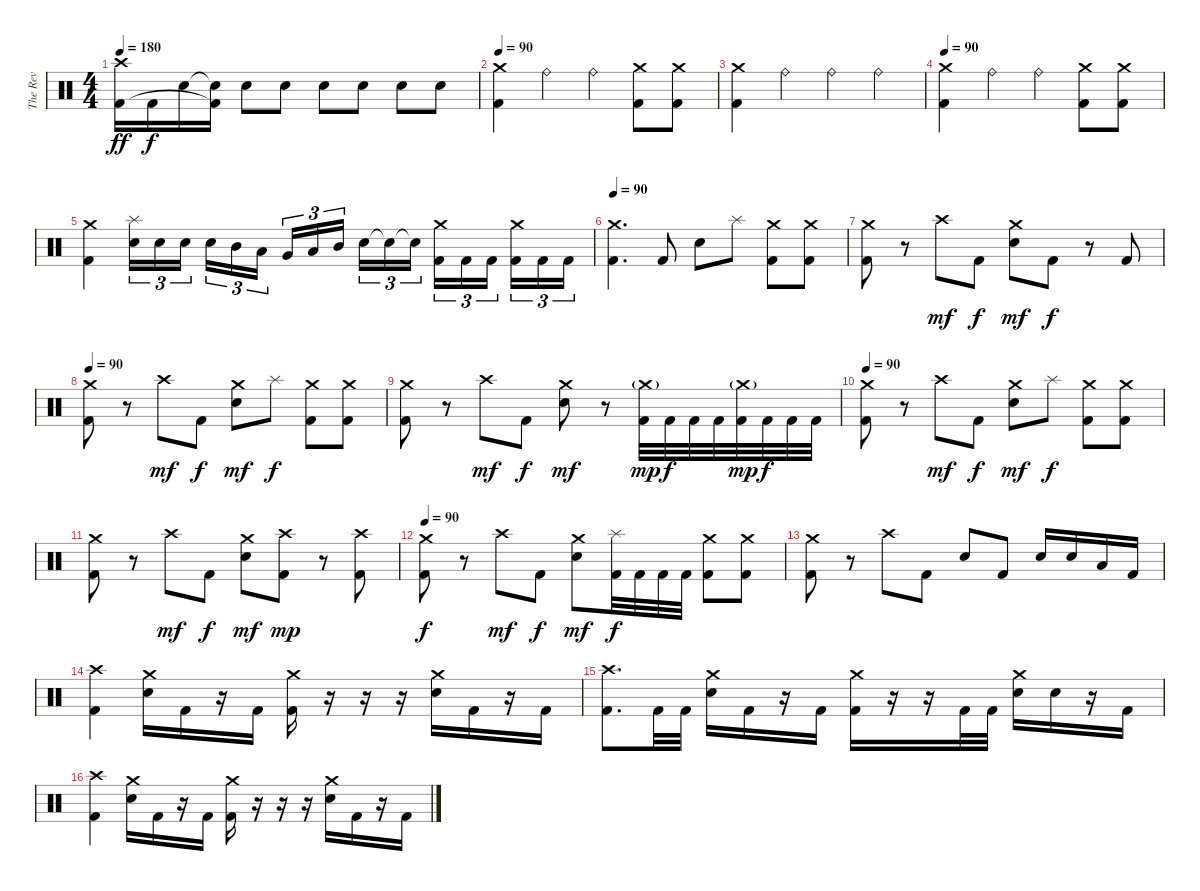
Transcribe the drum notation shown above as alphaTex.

\track ("The Rev" "The Rev") {instrument percussion}
\staff {score}
\articulation defaults
\ts (4 4)
\tempo 180
\clef neutral
\ks c
("Crash high (hit)" "Kick (hit) 2").16{dy ff} "Kick (hit) 2".16{dy f} "Snare (hit) 2".16 ("Snare (hit)"{t} "Kick (hit) 2"{t}).16 "Snare (hit) 2".8 "Snare (hit) 2".8 "Snare (hit) 2".8 "Snare (hit) 2".8 "Snare (hit) 2".8 "Snare (hit) 2".8 |
\tempo 90
("Crash medium (hit)" "Kick (hit) 2").4 "Ride (bell)".4 "Ride (bell)".4 ("Crash medium (hit)" "Kick (hit) 2").8 ("Crash medium (hit)" "Kick (hit) 2").8 |
("Crash medium (hit)" "Kick (hit) 2").4 "Ride (bell)".4 "Ride (bell)".4 "Ride (bell)".4 |
\tempo 90
("Crash medium (hit)" "Kick (hit) 2").4 "Ride (bell)".4 "Ride (bell)".4 ("Crash medium (hit)" "Kick (hit) 2").8 ("Crash medium (hit)" "Kick (hit) 2").8 |
("Crash medium (hit)" "Kick (hit) 2").4 ("Splash (hit)" "Snare (hit) 2").16{tu (3 2)} "Snare (hit) 2".16{tu (3 2)} "Snare (hit) 2".16{tu (3 2) beam splitsecondary} "Snare (hit) 2".16{tu (3 2)} "Mid Tom (hit)".16{tu (3 2)} "Low Tom (hit)".16{tu (3 2)} "Very Low Tom (hit)".16{tu (3 2)} "Low Tom (hit)".16{tu (3 2)} "Mid Tom (hit)".16{tu (3 2) beam splitsecondary} "Snare (hit) 2".16{tu (3 2)} "Snare (hit) 2"{t}.16{tu (3 2)} "Snare (hit)"{t}.16{tu (3 2)} ("Crash medium (hit)" "Kick (hit) 2").16{tu (3 2)} "Kick (hit) 2".16{tu (3 2)} "Kick (hit) 2".16{tu (3 2) beam splitsecondary} ("Crash medium (hit)" "Kick (hit) 2").16{tu (3 2)} "Kick (hit) 2".16{tu (3 2)} "Kick (hit) 2".16{tu (3 2)} |
\tempo 90
("Crash medium (hit)" "Kick (hit) 2").4{d} "Kick (hit) 2".8 "Snare (hit) 2".8 "Splash (hit)".8 ("Crash medium (hit)" "Kick (hit) 2").8 ("Crash medium (hit)" "Kick (hit) 2").8 |
("Crash medium (hit)" "Kick (hit) 2").8 r.8 "Crash high (hit)".8{dy mf} "Kick (hit) 2".8{dy f} ("Crash medium (hit)" "Snare (hit) 2").8{dy mf} "Kick (hit) 2".8{dy f} r.8 "Kick (hit) 2".8 |
\tempo 90
("Crash medium (hit)" "Kick (hit) 2").8 r.8 "Crash high (hit)".8{dy mf} "Kick (hit) 2".8{dy f} ("Crash medium (hit)" "Snare (hit) 2").8{dy mf} "Splash (hit)".8{dy f} ("Crash medium (hit)" "Kick (hit) 2").8 ("Crash medium (hit)" "Kick (hit) 2").8 |
("Crash medium (hit)" "Kick (hit) 2").8 r.8 "Crash high (hit)".8{dy mf} "Kick (hit) 2".8{dy f} ("Crash medium (hit)" "Snare (hit) 2").8{dy mf} r.8 ("Crash medium (hit)"{g} "Kick (hit) 2").32{dy mp} "Kick (hit) 2".32{dy f} "Kick (hit) 2".32 "Kick (hit) 2".32 ("Crash medium (hit)"{g} "Kick (hit) 2").32{dy mp} "Kick (hit) 2".32{dy f} "Kick (hit) 2".32 "Kick (hit) 2".32 |
\tempo 90
("Crash medium (hit)" "Kick (hit) 2").8 r.8 "Crash high (hit)".8{dy mf} "Kick (hit) 2".8{dy f} ("Crash medium (hit)" "Snare (hit) 2").8{dy mf} "Splash (hit)".8{dy f} ("Crash medium (hit)" "Kick (hit) 2").8 ("Crash medium (hit)" "Kick (hit) 2").8 |
("Crash medium (hit)" "Kick (hit) 2").8 r.8 "Crash high (hit)".8{dy mf} "Kick (hit) 2".8{dy f} ("Crash medium (hit)" "Snare (hit) 2").8{dy mf} ("Crash high (hit)" "Kick (hit) 2").8{dy mp} r.8 ("Crash high (hit)" "Kick (hit) 2").8 |
\tempo 90
("Crash medium (hit)" "Kick (hit) 2").8{dy f} r.8 "Crash high (hit)".8{dy mf} "Kick (hit) 2".8{dy f} ("Crash medium (hit)" "Snare (hit) 2").8{dy mf} ("Splash (hit)" "Kick (hit) 2").32{dy f} "Kick (hit) 2".32 "Kick (hit) 2".32 "Kick (hit) 2".32 ("Crash medium (hit)" "Kick (hit) 2").8 ("Crash medium (hit)" "Kick (hit) 2").8 |
("Crash medium (hit)" "Kick (hit) 2").8 r.8 "Crash high (hit)".8 "Kick (hit) 2".8 "Snare (hit) 2".8 "Kick (hit) 2".8 "Snare (hit) 2".16 "Snare (hit) 2".16 "Low Floor Tom (hit)".16 "Kick (hit) 2".16 |
("Crash high (hit)" "Kick (hit) 2").4 ("Crash medium (hit)" "Snare (hit) 2").16 "Kick (hit) 2".16 r.16 "Kick (hit) 2".16 ("Crash medium (hit)" "Kick (hit) 2").16 r.16 r.16 r.16 ("Crash medium (hit)" "Snare (hit) 2").16 "Kick (hit) 2".16 r.16 "Kick (hit) 2".16 |
("Crash high (hit)" "Kick (hit) 2").8{d} "Kick (hit) 2".32 "Kick (hit) 2".32 ("Crash medium (hit)" "Snare (hit) 2").16 "Kick (hit) 2".16 r.16 "Kick (hit) 2".16 ("Crash medium (hit)" "Kick (hit) 2").16 r.16 r.16 "Kick (hit) 2".32 "Kick (hit) 2".32 ("Crash medium (hit)" "Snare (hit) 2").16 "Snare (hit) 2".16 r.16 "Kick (hit) 2".16 |
("Crash high (hit)" "Kick (hit) 2").4 ("Crash medium (hit)" "Snare (hit) 2").16 "Kick (hit) 2".16 r.16 "Kick (hit) 2".16 ("Crash medium (hit)" "Kick (hit) 2").16 r.16 r.16 r.16 ("Crash medium (hit)" "Snare (hit) 2").16 "Kick (hit) 2".16 r.16 "Kick (hit) 2".16
